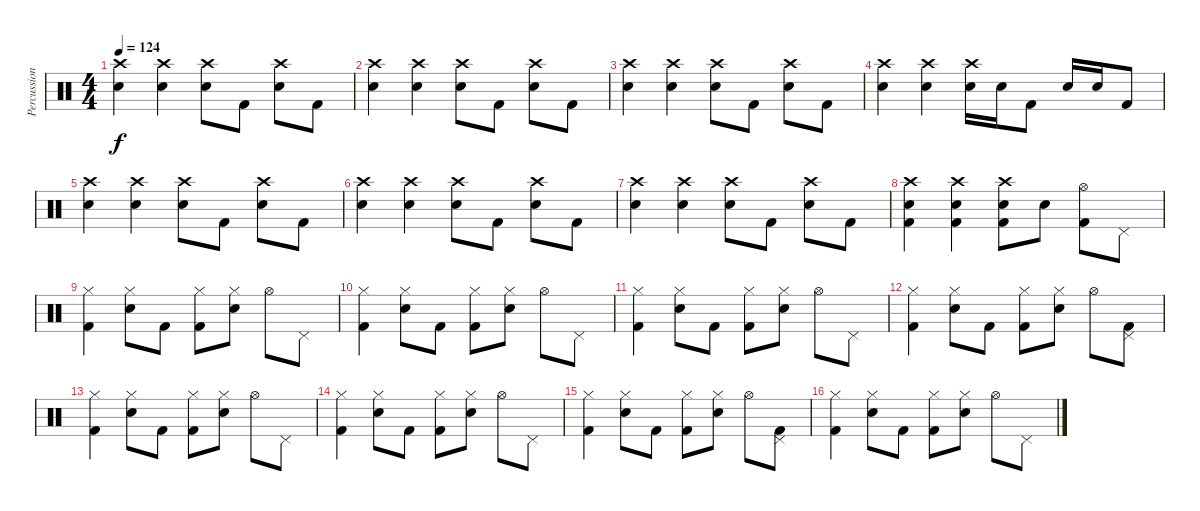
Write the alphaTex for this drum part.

\track ("Percussion" "Percussion") {instrument percussion}
\staff {score}
\articulation defaults
\ts (4 4)
\tempo 124
\clef neutral
\ks c
("Crash high (hit)" "Electric Snare (hit)").4{dy f} ("Crash high (hit)" "Electric Snare (hit)").4 ("Crash high (hit)" "Electric Snare (hit)").8 "Kick (hit) 2".8 ("Crash high (hit)" "Electric Snare (hit)").8 "Kick (hit) 2".8 |
("Crash high (hit)" "Electric Snare (hit)").4 ("Crash high (hit)" "Electric Snare (hit)").4 ("Crash high (hit)" "Electric Snare (hit)").8 "Kick (hit) 2".8 ("Crash high (hit)" "Electric Snare (hit)").8 "Kick (hit) 2".8 |
("Crash high (hit)" "Electric Snare (hit)").4 ("Crash high (hit)" "Electric Snare (hit)").4 ("Crash high (hit)" "Electric Snare (hit)").8 "Kick (hit) 2".8 ("Crash high (hit)" "Electric Snare (hit)").8 "Kick (hit) 2".8 |
("Crash high (hit)" "Electric Snare (hit)").4 ("Crash high (hit)" "Electric Snare (hit)").4 ("Crash high (hit)" "Electric Snare (hit)").16 "Electric Snare (hit)".16 "Kick (hit) 2".8 "Electric Snare (hit)".16 "Electric Snare (hit)".16 "Kick (hit) 2".8 |
("Crash high (hit)" "Electric Snare (hit)").4 ("Crash high (hit)" "Electric Snare (hit)").4 ("Crash high (hit)" "Electric Snare (hit)").8 "Kick (hit) 2".8 ("Crash high (hit)" "Electric Snare (hit)").8 "Kick (hit) 2".8 |
("Crash high (hit)" "Electric Snare (hit)").4 ("Crash high (hit)" "Electric Snare (hit)").4 ("Crash high (hit)" "Electric Snare (hit)").8 "Kick (hit) 2".8 ("Crash high (hit)" "Electric Snare (hit)").8 "Kick (hit) 2".8 |
("Crash high (hit)" "Electric Snare (hit)").4 ("Crash high (hit)" "Electric Snare (hit)").4 ("Crash high (hit)" "Electric Snare (hit)").8 "Kick (hit) 2".8 ("Crash high (hit)" "Electric Snare (hit)").8 "Kick (hit) 2".8 |
("Crash high (hit)" "Electric Snare (hit)" "Kick (hit) 2").4 ("Crash high (hit)" "Electric Snare (hit)" "Kick (hit) 2").4 ("Crash high (hit)" "Electric Snare (hit)" "Kick (hit) 2").8 "Electric Snare (hit)".8 ("Hi-Hat (open)" "Kick (hit) 2").8 "Pedal Hi-Hat (hit)".8 |
("Hi-Hat (closed)" "Kick (hit) 2").4 ("Hi-Hat (closed)" "Electric Snare (hit)").8 "Kick (hit) 2".8 ("Hi-Hat (closed)" "Kick (hit) 2").8 ("Hi-Hat (closed)" "Electric Snare (hit)").8 "Hi-Hat (open)".8 "Pedal Hi-Hat (hit)".8 |
("Hi-Hat (closed)" "Kick (hit) 2").4 ("Hi-Hat (closed)" "Electric Snare (hit)").8 "Kick (hit) 2".8 ("Hi-Hat (closed)" "Kick (hit) 2").8 ("Hi-Hat (closed)" "Electric Snare (hit)").8 "Hi-Hat (open)".8 "Pedal Hi-Hat (hit)".8 |
("Hi-Hat (closed)" "Kick (hit) 2").4 ("Hi-Hat (closed)" "Electric Snare (hit)").8 "Kick (hit) 2".8 ("Hi-Hat (closed)" "Kick (hit) 2").8 ("Hi-Hat (closed)" "Electric Snare (hit)").8 "Hi-Hat (open)".8 "Pedal Hi-Hat (hit)".8 |
("Hi-Hat (closed)" "Kick (hit) 2").4 ("Hi-Hat (closed)" "Electric Snare (hit)").8 "Kick (hit) 2".8 ("Hi-Hat (closed)" "Kick (hit) 2").8 ("Hi-Hat (closed)" "Electric Snare (hit)").8 "Hi-Hat (open)".8 ("Pedal Hi-Hat (hit)" "Kick (hit) 2").8 |
("Hi-Hat (closed)" "Kick (hit) 2").4 ("Hi-Hat (closed)" "Electric Snare (hit)").8 "Kick (hit) 2".8 ("Hi-Hat (closed)" "Kick (hit) 2").8 ("Hi-Hat (closed)" "Electric Snare (hit)").8 "Hi-Hat (open)".8 "Pedal Hi-Hat (hit)".8 |
("Hi-Hat (closed)" "Kick (hit) 2").4 ("Hi-Hat (closed)" "Electric Snare (hit)").8 "Kick (hit) 2".8 ("Hi-Hat (closed)" "Kick (hit) 2").8 ("Hi-Hat (closed)" "Electric Snare (hit)").8 "Hi-Hat (open)".8 "Pedal Hi-Hat (hit)".8 |
("Hi-Hat (closed)" "Kick (hit) 2").4 ("Hi-Hat (closed)" "Electric Snare (hit)").8 "Kick (hit) 2".8 ("Hi-Hat (closed)" "Kick (hit) 2").8 ("Hi-Hat (closed)" "Electric Snare (hit)").8 "Hi-Hat (open)".8 ("Pedal Hi-Hat (hit)" "Kick (hit) 2").8 |
("Hi-Hat (closed)" "Kick (hit) 2").4 ("Hi-Hat (closed)" "Electric Snare (hit)").8 "Kick (hit) 2".8 ("Hi-Hat (closed)" "Kick (hit) 2").8 ("Hi-Hat (closed)" "Electric Snare (hit)").8 "Hi-Hat (open)".8 "Pedal Hi-Hat (hit)".8
